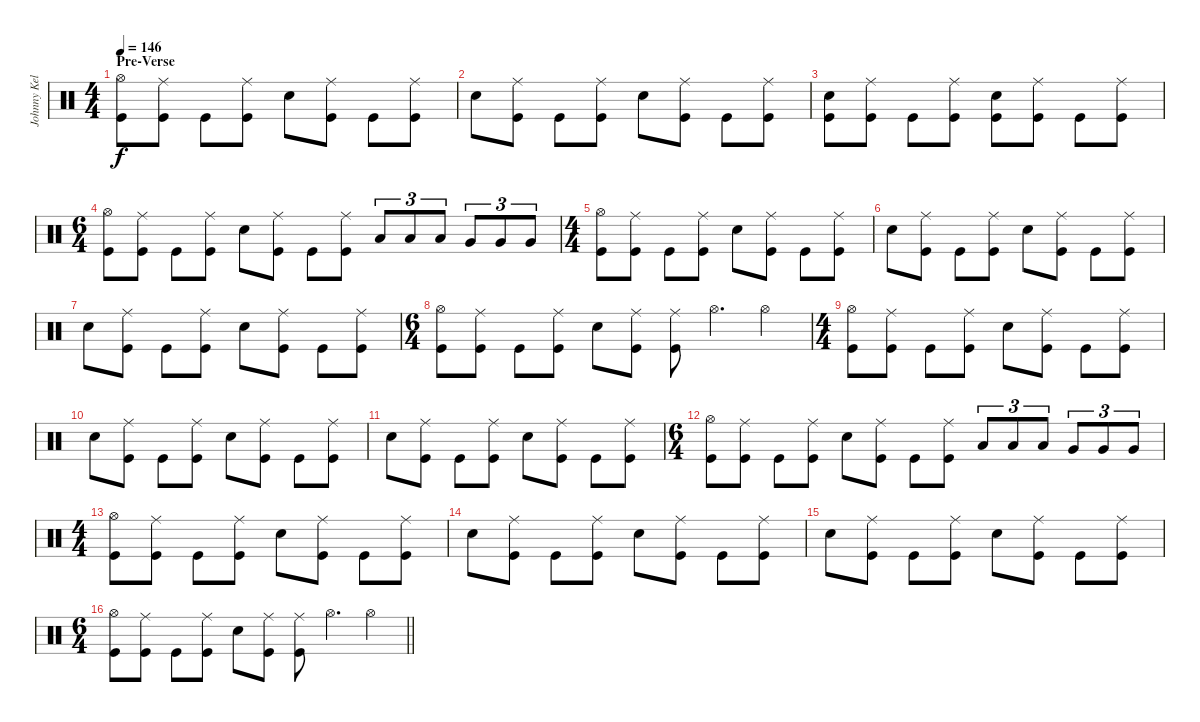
\track ("Johnny Kelly" "Johnny Kel") {instrument percussion}
\staff {score}
\articulation defaults
\ts (4 4)
\section ("" "Pre-Verse")
\tempo 146
\clef neutral
\ks c
("Kick (hit)" "Hi-Hat (open)").8{dy f} ("Kick (hit)" "Ride (middle)").8 "Kick (hit)".8 ("Kick (hit)" "Ride (middle)").8 "Snare (hit) 2".8 ("Kick (hit)" "Ride (middle)").8 "Kick (hit)".8 ("Kick (hit)" "Ride (middle)").8 |
"Snare (hit) 2".8 ("Kick (hit)" "Ride (middle)").8 "Kick (hit)".8 ("Kick (hit)" "Ride (middle)").8 "Snare (hit) 2".8 ("Kick (hit)" "Ride (middle)").8 "Kick (hit)".8 ("Kick (hit)" "Ride (middle)").8 |
("Kick (hit)" "Snare (hit) 2").8 ("Kick (hit)" "Ride (middle)").8 "Kick (hit)".8 ("Kick (hit)" "Ride (middle)").8 ("Kick (hit)" "Snare (hit) 2").8 ("Kick (hit)" "Ride (middle)").8 "Kick (hit)".8 ("Kick (hit)" "Ride (middle)").8 |
\ts (6 4)
("Kick (hit)" "Hi-Hat (open)").8 ("Kick (hit)" "Ride (middle)").8 "Kick (hit)".8 ("Kick (hit)" "Ride (middle)").8 "Snare (hit) 2".8 ("Kick (hit)" "Ride (middle)").8 "Kick (hit)".8 ("Kick (hit)" "Ride (middle)").8 "Low Tom (hit)".8{tu (3 2)} "Low Tom (hit)".8{tu (3 2)} "Low Tom (hit)".8{tu (3 2)} "Very Low Tom (hit)".8{tu (3 2)} "Very Low Tom (hit)".8{tu (3 2)} "Very Low Tom (hit)".8{tu (3 2)} |
\ts (4 4)
("Kick (hit)" "Hi-Hat (open)").8 ("Kick (hit)" "Ride (middle)").8 "Kick (hit)".8 ("Kick (hit)" "Ride (middle)").8 "Snare (hit) 2".8 ("Kick (hit)" "Ride (middle)").8 "Kick (hit)".8 ("Kick (hit)" "Ride (middle)").8 |
"Snare (hit) 2".8 ("Kick (hit)" "Ride (middle)").8 "Kick (hit)".8 ("Kick (hit)" "Ride (middle)").8 "Snare (hit) 2".8 ("Kick (hit)" "Ride (middle)").8 "Kick (hit)".8 ("Kick (hit)" "Ride (middle)").8 |
"Snare (hit) 2".8 ("Kick (hit)" "Ride (middle)").8 "Kick (hit)".8 ("Kick (hit)" "Ride (middle)").8 "Snare (hit) 2".8 ("Kick (hit)" "Ride (middle)").8 "Kick (hit)".8 ("Kick (hit)" "Ride (middle)").8 |
\ts (6 4)
("Kick (hit)" "Hi-Hat (open)").8 ("Kick (hit)" "Ride (middle)").8 "Kick (hit)".8 ("Kick (hit)" "Ride (middle)").8 "Snare (hit) 2".8 ("Kick (hit)" "Ride (middle)").8 ("Kick (hit)" "Ride (middle)").8 "Hi-Hat (open)".4{d} "Hi-Hat (open)".4 |
\ts (4 4)
("Kick (hit)" "Hi-Hat (open)").8 ("Kick (hit)" "Ride (middle)").8 "Kick (hit)".8 ("Kick (hit)" "Ride (middle)").8 "Snare (hit) 2".8 ("Kick (hit)" "Ride (middle)").8 "Kick (hit)".8 ("Kick (hit)" "Ride (middle)").8 |
"Snare (hit) 2".8 ("Kick (hit)" "Ride (middle)").8 "Kick (hit)".8 ("Kick (hit)" "Ride (middle)").8 "Snare (hit) 2".8 ("Kick (hit)" "Ride (middle)").8 "Kick (hit)".8 ("Kick (hit)" "Ride (middle)").8 |
"Snare (hit) 2".8 ("Kick (hit)" "Ride (middle)").8 "Kick (hit)".8 ("Kick (hit)" "Ride (middle)").8 "Snare (hit) 2".8 ("Kick (hit)" "Ride (middle)").8 "Kick (hit)".8 ("Kick (hit)" "Ride (middle)").8 |
\ts (6 4)
("Kick (hit)" "Hi-Hat (open)").8 ("Kick (hit)" "Ride (middle)").8 "Kick (hit)".8 ("Kick (hit)" "Ride (middle)").8 "Snare (hit) 2".8 ("Kick (hit)" "Ride (middle)").8 "Kick (hit)".8 ("Kick (hit)" "Ride (middle)").8 "Low Tom (hit)".8{tu (3 2)} "Low Tom (hit)".8{tu (3 2)} "Low Tom (hit)".8{tu (3 2)} "Very Low Tom (hit)".8{tu (3 2)} "Very Low Tom (hit)".8{tu (3 2)} "Very Low Tom (hit)".8{tu (3 2)} |
\ts (4 4)
("Kick (hit)" "Hi-Hat (open)").8 ("Kick (hit)" "Ride (middle)").8 "Kick (hit)".8 ("Kick (hit)" "Ride (middle)").8 "Snare (hit) 2".8 ("Kick (hit)" "Ride (middle)").8 "Kick (hit)".8 ("Kick (hit)" "Ride (middle)").8 |
"Snare (hit) 2".8 ("Kick (hit)" "Ride (middle)").8 "Kick (hit)".8 ("Kick (hit)" "Ride (middle)").8 "Snare (hit) 2".8 ("Kick (hit)" "Ride (middle)").8 "Kick (hit)".8 ("Kick (hit)" "Ride (middle)").8 |
"Snare (hit) 2".8 ("Kick (hit)" "Ride (middle)").8 "Kick (hit)".8 ("Kick (hit)" "Ride (middle)").8 "Snare (hit) 2".8 ("Kick (hit)" "Ride (middle)").8 "Kick (hit)".8 ("Kick (hit)" "Ride (middle)").8 |
\ts (6 4)
\barLineRight lightlight
("Kick (hit)" "Hi-Hat (open)").8 ("Kick (hit)" "Ride (middle)").8 "Kick (hit)".8 ("Kick (hit)" "Ride (middle)").8 "Snare (hit) 2".8 ("Kick (hit)" "Ride (middle)").8 ("Kick (hit)" "Ride (middle)").8 "Hi-Hat (open)".4{d} "Hi-Hat (open)".4
